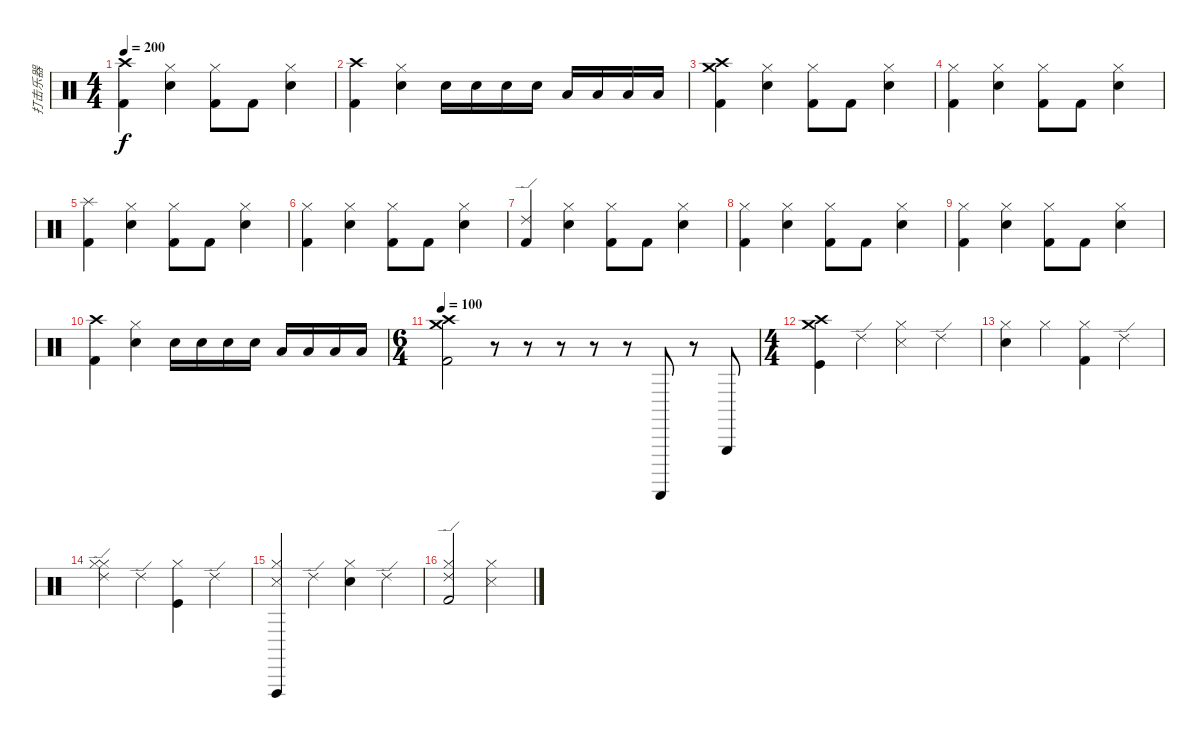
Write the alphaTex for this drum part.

\track ("打击乐器" "打击乐器") {instrument percussion}
\staff {score}
\articulation defaults
\ts (4 4)
\tempo 200
\clef neutral
\ks c
("Crash high (hit)" "Kick (hit) 2").4{dy f} ("Hi-Hat (closed)" "Snare (hit) 2").4 ("Hi-Hat (closed)" "Kick (hit) 2").8 "Kick (hit) 2".8 ("Hi-Hat (closed)" "Snare (hit) 2").4 |
("Crash high (hit)" "Kick (hit) 2").4 ("Hi-Hat (closed)" "Snare (hit) 2").4 "Snare (hit) 2".16 "Snare (hit) 2".16 "Snare (hit) 2".16 "Snare (hit) 2".16 "Low Floor Tom (hit)".16 "Low Floor Tom (hit)".16 "Low Tom (hit)".16 "Low Tom (hit)".16 |
("Crash high (hit)" "Crash medium (hit)" "Kick (hit) 2").4 ("Hi-Hat (closed)" "Snare (hit) 2").4 ("Hi-Hat (closed)" "Kick (hit) 2").8 "Kick (hit) 2".8 ("Hi-Hat (closed)" "Snare (hit) 2").4 |
("Hi-Hat (closed)" "Kick (hit) 2").4 ("Hi-Hat (closed)" "Snare (hit) 2").4 ("Hi-Hat (closed)" "Kick (hit) 2").8 "Kick (hit) 2".8 ("Hi-Hat (closed)" "Snare (hit) 2").4 |
("Splash (hit)" "Kick (hit) 2").4 ("Hi-Hat (closed)" "Snare (hit) 2").4 ("Hi-Hat (closed)" "Kick (hit) 2").8 "Kick (hit) 2".8 ("Hi-Hat (closed)" "Snare (hit) 2").4 |
("Hi-Hat (closed)" "Kick (hit) 2").4 ("Hi-Hat (closed)" "Snare (hit) 2").4 ("Hi-Hat (closed)" "Kick (hit) 2").8 "Kick (hit) 2".8 ("Hi-Hat (closed)" "Snare (hit) 2").4 |
("Ride (edge) 2" "Kick (hit) 2").4 ("Hi-Hat (closed)" "Snare (hit) 2").4 ("Hi-Hat (closed)" "Kick (hit) 2").8 "Kick (hit) 2".8 ("Hi-Hat (closed)" "Snare (hit) 2").4 |
("Hi-Hat (closed)" "Kick (hit) 2").4 ("Hi-Hat (closed)" "Snare (hit) 2").4 ("Hi-Hat (closed)" "Kick (hit) 2").8 "Kick (hit) 2".8 ("Hi-Hat (closed)" "Snare (hit) 2").4 |
("Hi-Hat (closed)" "Kick (hit) 2").4 ("Hi-Hat (closed)" "Snare (hit) 2").4 ("Hi-Hat (closed)" "Kick (hit) 2").8 "Kick (hit) 2".8 ("Hi-Hat (closed)" "Snare (hit) 2").4 |
("Crash high (hit)" "Kick (hit) 2").4 ("Hi-Hat (closed)" "Snare (hit) 2").4 "Snare (hit) 2".16 "Snare (hit) 2".16 "Snare (hit) 2".16 "Snare (hit) 2".16 "Low Floor Tom (hit)".16 "Low Floor Tom (hit)".16 "Low Tom (hit)".16 "Low Tom (hit)".16 |
\ts (6 4)
\tempo 100
("Crash medium (hit)" "Crash high (hit)" "Kick (hit) 2").2 r.8 r.8 r.8 r.8 r.8 "Guiro (scrap-return)".8 r.8 "Triangle (hit)".8 |
\ts (4 4)
("Crash high (hit)" "Crash medium (hit)" "Kick (hit)").4 "Ride (edge) 2".4 ("Hi-Hat (closed)" "Snare (side stick) 3").4 "Ride (edge) 2".4 |
("Hi-Hat (closed)" "Metronome (bell)").4 "Hi-Hat (closed)".4 ("Hi-Hat (closed)" "Kick (hit) 2").4 "Ride (edge) 2".4 |
("Ride (edge) 2" "Hi-Hat (closed)" "Hi-Hat (closed)").4 "Ride (edge) 2".4 ("Hi-Hat (closed)" "Kick (hit)").4 "Ride (edge) 2".4 |
("Vibraslap (hit)" "Hi-Hat (closed)" "Snare (side stick) 3").4 "Ride (edge) 2".4 ("Hi-Hat (closed)" "Hand Clap (hit)").4 "Ride (edge) 2".4 |
("Ride (edge) 2" "Hi-Hat (closed)" "Kick (hit) 2").2 ("Hi-Hat (closed)" "Snare (side stick) 3").2
